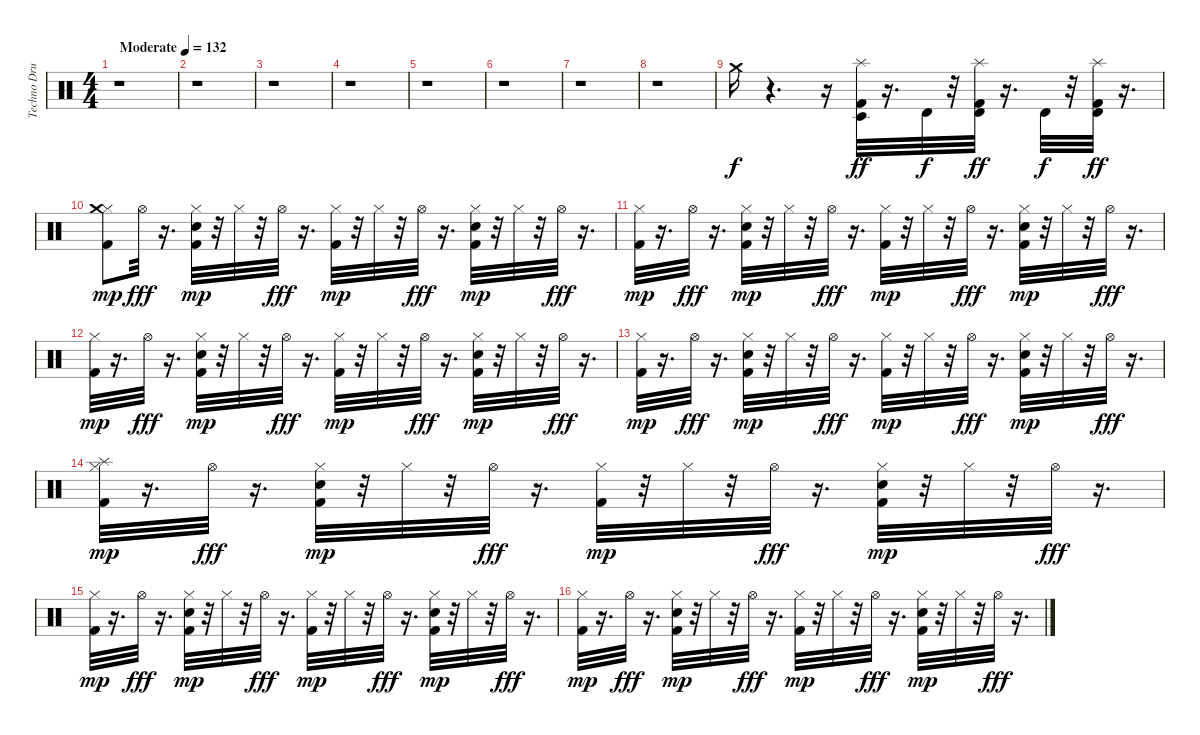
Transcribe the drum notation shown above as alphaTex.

\track ("Techno Drums" "Techno Dru") {instrument percussion}
\staff {score}
\articulation defaults
\ts (4 4)
\tempo (132 "Moderate")
\clef neutral
\ks c
r.1{dy f} |
r.1 |
r.1 |
r.1 |
r.1 |
r.1 |
r.1 |
r.1 |
"Crash medium (hit)".16 r.4{d} r.16 ("Timbale low (hit)" "Splash (hit)" "Kick (hit) 2").32{dy ff} r.16{d} "Timbale high (hit)".32{dy f} r.32 ("Timbale high (hit)" "Splash (hit)" "Kick (hit) 2").32{dy ff} r.16{d} "Timbale high (hit)".32{dy f} r.32 ("Timbale high (hit)" "Splash (hit)" "Kick (hit) 2").32{dy ff} r.16{d} |
("Kick (hit) 2" "Hi-Hat (closed)" "Crash medium (hit)").8{dy mp} "Hi-Hat (open)".32{dy fff} r.16{d} ("Kick (hit) 2" "Hand Clap (hit)" "Hi-Hat (closed)").32{dy mp} r.32 "Hi-Hat (closed)".32 r.32 "Hi-Hat (open)".32{dy fff} r.16{d} ("Kick (hit) 2" "Hi-Hat (closed)").32{dy mp} r.32 "Hi-Hat (closed)".32 r.32 "Hi-Hat (open)".32{dy fff} r.16{d} ("Kick (hit) 2" "Hand Clap (hit)" "Hi-Hat (closed)").32{dy mp} r.32 "Hi-Hat (closed)".32 r.32 "Hi-Hat (open)".32{dy fff} r.16{d} |
("Kick (hit) 2" "Hi-Hat (closed)").32{dy mp} r.16{d} "Hi-Hat (open)".32{dy fff} r.16{d} ("Kick (hit) 2" "Hand Clap (hit)" "Hi-Hat (closed)").32{dy mp} r.32 "Hi-Hat (closed)".32 r.32 "Hi-Hat (open)".32{dy fff} r.16{d} ("Kick (hit) 2" "Hi-Hat (closed)").32{dy mp} r.32 "Hi-Hat (closed)".32 r.32 "Hi-Hat (open)".32{dy fff} r.16{d} ("Kick (hit) 2" "Hand Clap (hit)" "Hi-Hat (closed)").32{dy mp} r.32 "Hi-Hat (closed)".32 r.32 "Hi-Hat (open)".32{dy fff} r.16{d} |
("Kick (hit) 2" "Hi-Hat (closed)").32{dy mp} r.16{d} "Hi-Hat (open)".32{dy fff} r.16{d} ("Kick (hit) 2" "Hand Clap (hit)" "Hi-Hat (closed)").32{dy mp} r.32 "Hi-Hat (closed)".32 r.32 "Hi-Hat (open)".32{dy fff} r.16{d} ("Kick (hit) 2" "Hi-Hat (closed)").32{dy mp} r.32 "Hi-Hat (closed)".32 r.32 "Hi-Hat (open)".32{dy fff} r.16{d} ("Kick (hit) 2" "Hand Clap (hit)" "Hi-Hat (closed)").32{dy mp} r.32 "Hi-Hat (closed)".32 r.32 "Hi-Hat (open)".32{dy fff} r.16{d} |
("Kick (hit) 2" "Hi-Hat (closed)").32{dy mp} r.16{d} "Hi-Hat (open)".32{dy fff} r.16{d} ("Kick (hit) 2" "Hand Clap (hit)" "Hi-Hat (closed)").32{dy mp} r.32 "Hi-Hat (closed)".32 r.32 "Hi-Hat (open)".32{dy fff} r.16{d} ("Kick (hit) 2" "Hi-Hat (closed)").32{dy mp} r.32 "Hi-Hat (closed)".32 r.32 "Hi-Hat (open)".32{dy fff} r.16{d} ("Kick (hit) 2" "Hand Clap (hit)" "Hi-Hat (closed)").32{dy mp} r.32 "Hi-Hat (closed)".32 r.32 "Hi-Hat (open)".32{dy fff} r.16{d} |
("Kick (hit) 2" "Hi-Hat (closed)" "Splash (hit)").32{dy mp} r.16{d} "Hi-Hat (open)".32{dy fff} r.16{d} ("Kick (hit) 2" "Hand Clap (hit)" "Hi-Hat (closed)").32{dy mp} r.32 "Hi-Hat (closed)".32 r.32 "Hi-Hat (open)".32{dy fff} r.16{d} ("Kick (hit) 2" "Hi-Hat (closed)").32{dy mp} r.32 "Hi-Hat (closed)".32 r.32 "Hi-Hat (open)".32{dy fff} r.16{d} ("Kick (hit) 2" "Hand Clap (hit)" "Hi-Hat (closed)").32{dy mp} r.32 "Hi-Hat (closed)".32 r.32 "Hi-Hat (open)".32{dy fff} r.16{d} |
("Kick (hit) 2" "Hi-Hat (closed)").32{dy mp} r.16{d} "Hi-Hat (open)".32{dy fff} r.16{d} ("Kick (hit) 2" "Hand Clap (hit)" "Hi-Hat (closed)").32{dy mp} r.32 "Hi-Hat (closed)".32 r.32 "Hi-Hat (open)".32{dy fff} r.16{d} ("Kick (hit) 2" "Hi-Hat (closed)").32{dy mp} r.32 "Hi-Hat (closed)".32 r.32 "Hi-Hat (open)".32{dy fff} r.16{d} ("Kick (hit) 2" "Hand Clap (hit)" "Hi-Hat (closed)").32{dy mp} r.32 "Hi-Hat (closed)".32 r.32 "Hi-Hat (open)".32{dy fff} r.16{d} |
("Kick (hit) 2" "Hi-Hat (closed)").32{dy mp} r.16{d} "Hi-Hat (open)".32{dy fff} r.16{d} ("Kick (hit) 2" "Hand Clap (hit)" "Hi-Hat (closed)").32{dy mp} r.32 "Hi-Hat (closed)".32 r.32 "Hi-Hat (open)".32{dy fff} r.16{d} ("Kick (hit) 2" "Hi-Hat (closed)").32{dy mp} r.32 "Hi-Hat (closed)".32 r.32 "Hi-Hat (open)".32{dy fff} r.16{d} ("Kick (hit) 2" "Hand Clap (hit)" "Hi-Hat (closed)").32{dy mp} r.32 "Hi-Hat (closed)".32 r.32 "Hi-Hat (open)".32{dy fff} r.16{d}
